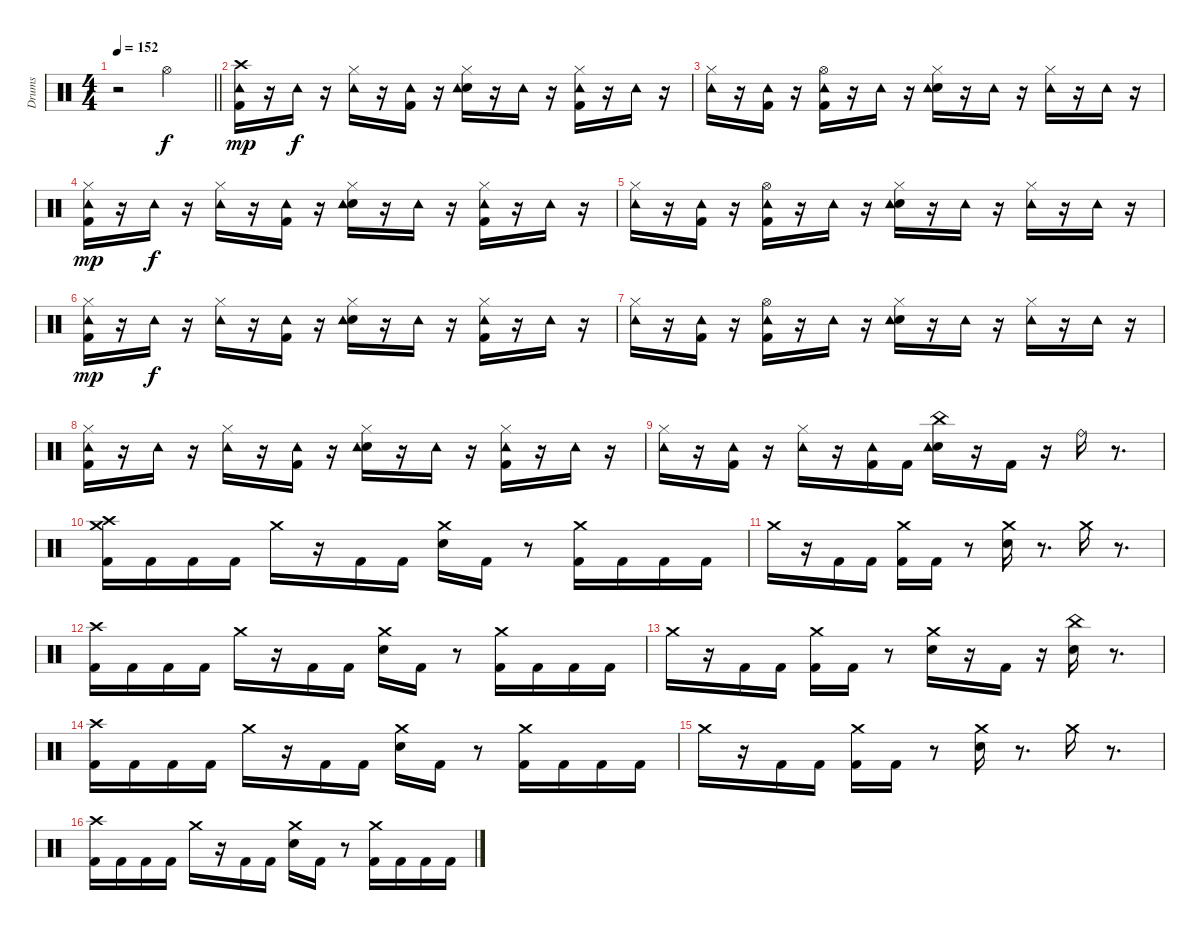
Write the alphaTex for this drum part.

\track ("Drums" "Drums") {instrument percussion}
\staff {score}
\articulation defaults
\ts (4 4)
\tempo 152
\clef neutral
\barLineRight lightlight
\ks c
r.2{dy f} "Hi-Hat (open)".2 |
\section ("" " ")
("Kick (hit) 2" "Tambourine (hit)" "Crash high (hit)").16{dy mp} r.16 "Tambourine (hit)".16{dy f} r.16 ("Hi-Hat (closed)" "Tambourine (hit)").16 r.16 ("Kick (hit) 2" "Tambourine (hit)").16 r.16 ("Snare (hit) 2" "Hi-Hat (closed)" "Tambourine (hit)").16 r.16 "Tambourine (hit)".16 r.16 ("Kick (hit) 2" "Hi-Hat (closed)" "Tambourine (hit)").16 r.16 "Tambourine (hit)".16 r.16 |
("Hi-Hat (closed)" "Tambourine (hit)").16 r.16 ("Kick (hit) 2" "Tambourine (hit)").16 r.16 ("Kick (hit) 2" "Hi-Hat (open)" "Tambourine (hit)").16 r.16 "Tambourine (hit)".16 r.16 ("Snare (hit) 2" "Hi-Hat (closed)" "Tambourine (hit)").16 r.16 "Tambourine (hit)".16 r.16 ("Hi-Hat (closed)" "Tambourine (hit)").16 r.16 "Tambourine (hit)".16 r.16 |
("Kick (hit) 2" "Hi-Hat (closed)" "Tambourine (hit)").16{dy mp} r.16 "Tambourine (hit)".16{dy f} r.16 ("Hi-Hat (closed)" "Tambourine (hit)").16 r.16 ("Kick (hit) 2" "Tambourine (hit)").16 r.16 ("Snare (hit) 2" "Hi-Hat (closed)" "Tambourine (hit)").16 r.16 "Tambourine (hit)".16 r.16 ("Kick (hit) 2" "Hi-Hat (closed)" "Tambourine (hit)").16 r.16 "Tambourine (hit)".16 r.16 |
("Hi-Hat (closed)" "Tambourine (hit)").16 r.16 ("Kick (hit) 2" "Tambourine (hit)").16 r.16 ("Kick (hit) 2" "Hi-Hat (open)" "Tambourine (hit)").16 r.16 "Tambourine (hit)".16 r.16 ("Snare (hit) 2" "Hi-Hat (closed)" "Tambourine (hit)").16 r.16 "Tambourine (hit)".16 r.16 ("Hi-Hat (closed)" "Tambourine (hit)").16 r.16 "Tambourine (hit)".16 r.16 |
("Kick (hit) 2" "Hi-Hat (closed)" "Tambourine (hit)").16{dy mp} r.16 "Tambourine (hit)".16{dy f} r.16 ("Hi-Hat (closed)" "Tambourine (hit)").16 r.16 ("Kick (hit) 2" "Tambourine (hit)").16 r.16 ("Snare (hit) 2" "Hi-Hat (closed)" "Tambourine (hit)").16 r.16 "Tambourine (hit)".16 r.16 ("Kick (hit) 2" "Hi-Hat (closed)" "Tambourine (hit)").16 r.16 "Tambourine (hit)".16 r.16 |
("Hi-Hat (closed)" "Tambourine (hit)").16 r.16 ("Kick (hit) 2" "Tambourine (hit)").16 r.16 ("Kick (hit) 2" "Hi-Hat (open)" "Tambourine (hit)").16 r.16 "Tambourine (hit)".16 r.16 ("Snare (hit) 2" "Hi-Hat (closed)" "Tambourine (hit)").16 r.16 "Tambourine (hit)".16 r.16 ("Hi-Hat (closed)" "Tambourine (hit)").16 r.16 "Tambourine (hit)".16 r.16 |
("Kick (hit) 2" "Hi-Hat (closed)" "Tambourine (hit)").16 r.16 "Tambourine (hit)".16 r.16 ("Hi-Hat (closed)" "Tambourine (hit)").16 r.16 ("Kick (hit) 2" "Tambourine (hit)").16 r.16 ("Snare (hit) 2" "Hi-Hat (closed)" "Tambourine (hit)").16 r.16 "Tambourine (hit)".16 r.16 ("Kick (hit) 2" "Hi-Hat (closed)" "Tambourine (hit)").16 r.16 "Tambourine (hit)".16 r.16 |
("Hi-Hat (closed)" "Tambourine (hit)").16 r.16 ("Kick (hit) 2" "Tambourine (hit)").16 r.16 ("Hi-Hat (closed)" "Tambourine (hit)").16 r.16 ("Kick (hit) 2" "Tambourine (hit)").16 "Kick (hit) 2".16 ("Snare (hit) 2" "China (hit)" "Tambourine (hit)").16 r.16 "Kick (hit) 2".16 r.16 "Ride (bell)".16 r.8{d} |
("Kick (hit) 2" "Crash medium (hit)" "Crash high (hit)").16 "Kick (hit) 2".16 "Kick (hit) 2".16 "Kick (hit) 2".16 "Crash medium (hit)".16 r.16 "Kick (hit) 2".16 "Kick (hit) 2".16 ("Snare (hit) 2" "Crash medium (hit)").16 "Kick (hit) 2".16 r.8 ("Kick (hit) 2" "Crash medium (hit)").16 "Kick (hit) 2".16 "Kick (hit) 2".16 "Kick (hit) 2".16 |
"Crash medium (hit)".16 r.16 "Kick (hit) 2".16 "Kick (hit) 2".16 ("Kick (hit) 2" "Crash medium (hit)").16 "Kick (hit) 2".16 r.8 ("Snare (hit) 2" "Crash medium (hit)").16 r.8{d} "Crash medium (hit)".16 r.8{d} |
("Kick (hit) 2" "Crash high (hit)").16 "Kick (hit) 2".16 "Kick (hit) 2".16 "Kick (hit) 2".16 "Crash medium (hit)".16 r.16 "Kick (hit) 2".16 "Kick (hit) 2".16 ("Snare (hit) 2" "Crash medium (hit)").16 "Kick (hit) 2".16 r.8 ("Kick (hit) 2" "Crash medium (hit)").16 "Kick (hit) 2".16 "Kick (hit) 2".16 "Kick (hit) 2".16 |
"Crash medium (hit)".16 r.16 "Kick (hit) 2".16 "Kick (hit) 2".16 ("Kick (hit) 2" "Crash medium (hit)").16 "Kick (hit) 2".16 r.8 ("Snare (hit) 2" "Crash medium (hit)").16 r.16 "Kick (hit) 2".16 r.16 ("Snare (hit) 2" "China (hit)").16 r.8{d} |
("Kick (hit) 2" "Crash high (hit)").16 "Kick (hit) 2".16 "Kick (hit) 2".16 "Kick (hit) 2".16 "Crash medium (hit)".16 r.16 "Kick (hit) 2".16 "Kick (hit) 2".16 ("Snare (hit) 2" "Crash medium (hit)").16 "Kick (hit) 2".16 r.8 ("Kick (hit) 2" "Crash medium (hit)").16 "Kick (hit) 2".16 "Kick (hit) 2".16 "Kick (hit) 2".16 |
"Crash medium (hit)".16 r.16 "Kick (hit) 2".16 "Kick (hit) 2".16 ("Kick (hit) 2" "Crash medium (hit)").16 "Kick (hit) 2".16 r.8 ("Snare (hit) 2" "Crash medium (hit)").16 r.8{d} "Crash medium (hit)".16 r.8{d} |
("Kick (hit) 2" "Crash high (hit)").16 "Kick (hit) 2".16 "Kick (hit) 2".16 "Kick (hit) 2".16 "Crash medium (hit)".16 r.16 "Kick (hit) 2".16 "Kick (hit) 2".16 ("Snare (hit) 2" "Crash medium (hit)").16 "Kick (hit) 2".16 r.8 ("Kick (hit) 2" "Crash medium (hit)").16 "Kick (hit) 2".16 "Kick (hit) 2".16 "Kick (hit) 2".16
